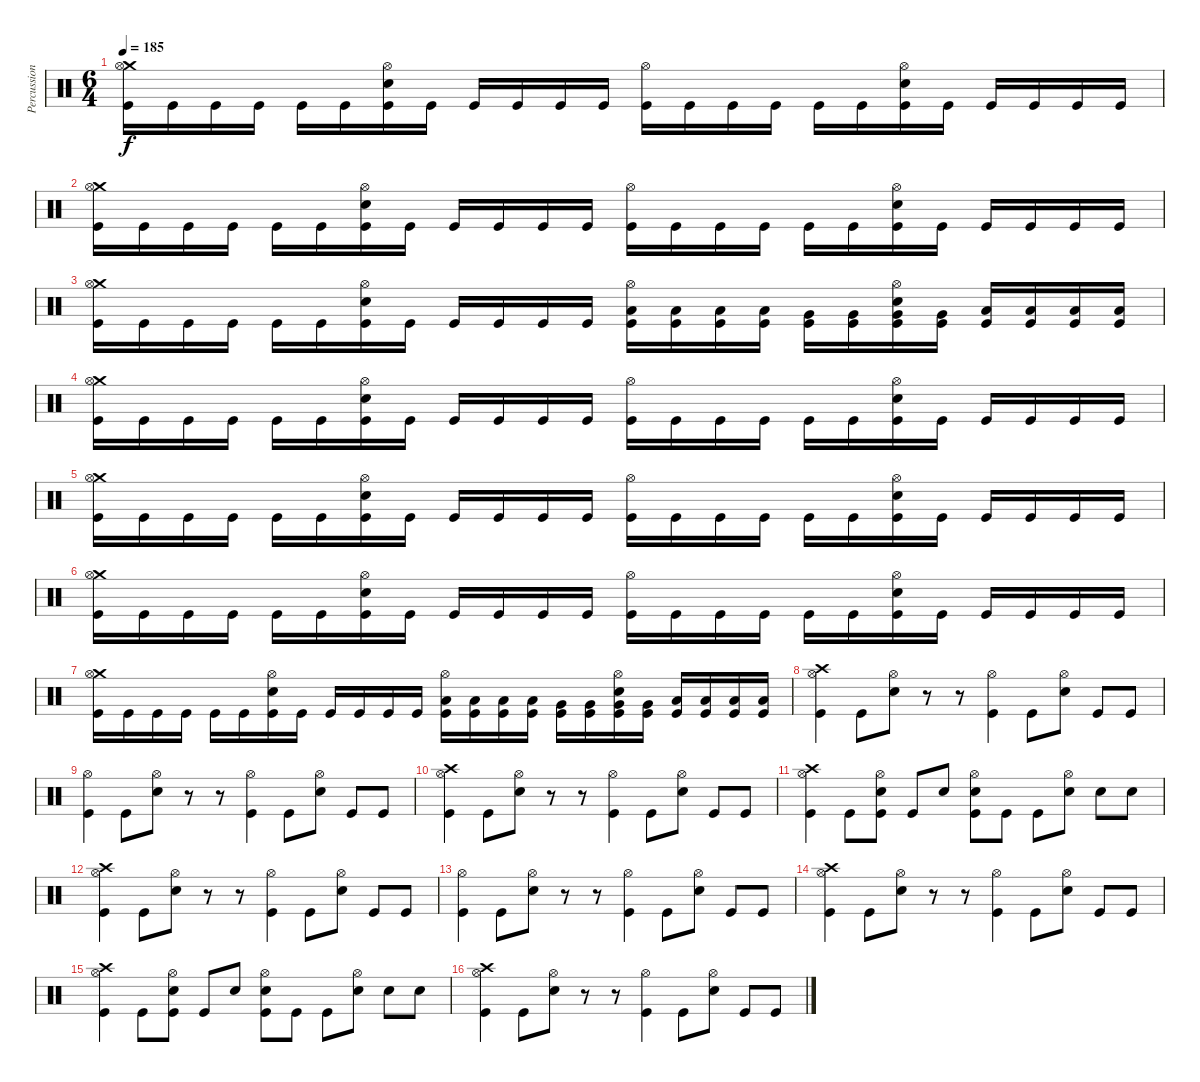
\track ("Percussion" "Percussion") {instrument percussion}
\staff {score}
\articulation defaults
\ts (6 4)
\tempo 185
\clef neutral
\ks c
("Crash medium (hit)" "Hi-Hat (open)" "Kick (hit)").16{dy f} "Kick (hit)".16 "Kick (hit)".16 "Kick (hit)".16 "Kick (hit)".16 "Kick (hit)".16 ("Hi-Hat (open)" "Electric Snare (hit)" "Kick (hit)").16 "Kick (hit)".16 "Kick (hit)".16 "Kick (hit)".16 "Kick (hit)".16 "Kick (hit)".16 ("Hi-Hat (open)" "Kick (hit)").16 "Kick (hit)".16 "Kick (hit)".16 "Kick (hit)".16 "Kick (hit)".16 "Kick (hit)".16 ("Electric Snare (hit)" "Hi-Hat (open)" "Kick (hit)").16 "Kick (hit)".16 "Kick (hit)".16 "Kick (hit)".16 "Kick (hit)".16 "Kick (hit)".16 |
("Crash medium (hit)" "Hi-Hat (open)" "Kick (hit)").16 "Kick (hit)".16 "Kick (hit)".16 "Kick (hit)".16 "Kick (hit)".16 "Kick (hit)".16 ("Hi-Hat (open)" "Electric Snare (hit)" "Kick (hit)").16 "Kick (hit)".16 "Kick (hit)".16 "Kick (hit)".16 "Kick (hit)".16 "Kick (hit)".16 ("Hi-Hat (open)" "Kick (hit)").16 "Kick (hit)".16 "Kick (hit)".16 "Kick (hit)".16 "Kick (hit)".16 "Kick (hit)".16 ("Electric Snare (hit)" "Hi-Hat (open)" "Kick (hit)").16 "Kick (hit)".16 "Kick (hit)".16 "Kick (hit)".16 "Kick (hit)".16 "Kick (hit)".16 |
("Crash medium (hit)" "Hi-Hat (open)" "Kick (hit)").16 "Kick (hit)".16 "Kick (hit)".16 "Kick (hit)".16 "Kick (hit)".16 "Kick (hit)".16 ("Hi-Hat (open)" "Electric Snare (hit)" "Kick (hit)").16 "Kick (hit)".16 "Kick (hit)".16 "Kick (hit)".16 "Kick (hit)".16 "Kick (hit)".16 ("Low Tom (hit)" "Hi-Hat (open)" "Kick (hit)").16 ("Low Tom (hit)" "Kick (hit)").16 ("Low Tom (hit)" "Kick (hit)").16 ("Low Tom (hit)" "Kick (hit)").16 ("Very Low Tom (hit)" "Kick (hit)").16 ("Very Low Tom (hit)" "Kick (hit)").16 ("Very Low Tom (hit)" "Electric Snare (hit)" "Hi-Hat (open)" "Kick (hit)").16 ("Very Low Tom (hit)" "Kick (hit)").16 ("Low Floor Tom (hit)" "Kick (hit)").16 ("Low Floor Tom (hit)" "Kick (hit)").16 ("Low Floor Tom (hit)" "Kick (hit)").16 ("Low Floor Tom (hit)" "Kick (hit)").16 |
("Crash medium (hit)" "Hi-Hat (open)" "Kick (hit)").16 "Kick (hit)".16 "Kick (hit)".16 "Kick (hit)".16 "Kick (hit)".16 "Kick (hit)".16 ("Hi-Hat (open)" "Electric Snare (hit)" "Kick (hit)").16 "Kick (hit)".16 "Kick (hit)".16 "Kick (hit)".16 "Kick (hit)".16 "Kick (hit)".16 ("Hi-Hat (open)" "Kick (hit)").16 "Kick (hit)".16 "Kick (hit)".16 "Kick (hit)".16 "Kick (hit)".16 "Kick (hit)".16 ("Electric Snare (hit)" "Hi-Hat (open)" "Kick (hit)").16 "Kick (hit)".16 "Kick (hit)".16 "Kick (hit)".16 "Kick (hit)".16 "Kick (hit)".16 |
("Crash medium (hit)" "Hi-Hat (open)" "Kick (hit)").16 "Kick (hit)".16 "Kick (hit)".16 "Kick (hit)".16 "Kick (hit)".16 "Kick (hit)".16 ("Hi-Hat (open)" "Electric Snare (hit)" "Kick (hit)").16 "Kick (hit)".16 "Kick (hit)".16 "Kick (hit)".16 "Kick (hit)".16 "Kick (hit)".16 ("Hi-Hat (open)" "Kick (hit)").16 "Kick (hit)".16 "Kick (hit)".16 "Kick (hit)".16 "Kick (hit)".16 "Kick (hit)".16 ("Electric Snare (hit)" "Hi-Hat (open)" "Kick (hit)").16 "Kick (hit)".16 "Kick (hit)".16 "Kick (hit)".16 "Kick (hit)".16 "Kick (hit)".16 |
("Crash medium (hit)" "Hi-Hat (open)" "Kick (hit)").16 "Kick (hit)".16 "Kick (hit)".16 "Kick (hit)".16 "Kick (hit)".16 "Kick (hit)".16 ("Hi-Hat (open)" "Electric Snare (hit)" "Kick (hit)").16 "Kick (hit)".16 "Kick (hit)".16 "Kick (hit)".16 "Kick (hit)".16 "Kick (hit)".16 ("Hi-Hat (open)" "Kick (hit)").16 "Kick (hit)".16 "Kick (hit)".16 "Kick (hit)".16 "Kick (hit)".16 "Kick (hit)".16 ("Electric Snare (hit)" "Hi-Hat (open)" "Kick (hit)").16 "Kick (hit)".16 "Kick (hit)".16 "Kick (hit)".16 "Kick (hit)".16 "Kick (hit)".16 |
("Crash medium (hit)" "Hi-Hat (open)" "Kick (hit)").16 "Kick (hit)".16 "Kick (hit)".16 "Kick (hit)".16 "Kick (hit)".16 "Kick (hit)".16 ("Hi-Hat (open)" "Electric Snare (hit)" "Kick (hit)").16 "Kick (hit)".16 "Kick (hit)".16 "Kick (hit)".16 "Kick (hit)".16 "Kick (hit)".16 ("Low Tom (hit)" "Hi-Hat (open)" "Kick (hit)").16 ("Low Tom (hit)" "Kick (hit)").16 ("Low Tom (hit)" "Kick (hit)").16 ("Low Tom (hit)" "Kick (hit)").16 ("Very Low Tom (hit)" "Kick (hit)").16 ("Very Low Tom (hit)" "Kick (hit)").16 ("Very Low Tom (hit)" "Electric Snare (hit)" "Hi-Hat (open)" "Kick (hit)").16 ("Very Low Tom (hit)" "Kick (hit)").16 ("Low Floor Tom (hit)" "Kick (hit)").16 ("Low Floor Tom (hit)" "Kick (hit)").16 ("Low Floor Tom (hit)" "Kick (hit)").16 ("Low Floor Tom (hit)" "Kick (hit)").16 |
("Crash high (hit)" "Hi-Hat (open)" "Kick (hit)").4 "Kick (hit)".8 ("Hi-Hat (open)" "Electric Snare (hit)").8 r.8 r.8 ("Hi-Hat (open)" "Kick (hit)").4 "Kick (hit)".8 ("Hi-Hat (open)" "Electric Snare (hit)").8 "Kick (hit)".8 "Kick (hit)".8 |
("Hi-Hat (open)" "Kick (hit)").4 "Kick (hit)".8 ("Hi-Hat (open)" "Electric Snare (hit)").8 r.8 r.8 ("Hi-Hat (open)" "Kick (hit)").4 "Kick (hit)".8 ("Hi-Hat (open)" "Electric Snare (hit)").8 "Kick (hit)".8 "Kick (hit)".8 |
("Crash high (hit)" "Hi-Hat (open)" "Kick (hit)").4 "Kick (hit)".8 ("Hi-Hat (open)" "Electric Snare (hit)").8 r.8 r.8 ("Hi-Hat (open)" "Kick (hit)").4 "Kick (hit)".8 ("Hi-Hat (open)" "Electric Snare (hit)").8 "Kick (hit)".8 "Kick (hit)".8 |
("Crash high (hit)" "Hi-Hat (open)" "Kick (hit)").4 "Kick (hit)".8 ("Hi-Hat (open)" "Electric Snare (hit)" "Kick (hit)").8 "Kick (hit)".8 "Electric Snare (hit)".8 ("Hi-Hat (open)" "Electric Snare (hit)" "Kick (hit)").8 "Kick (hit)".8 "Kick (hit)".8 ("Hi-Hat (open)" "Electric Snare (hit)").8 "Electric Snare (hit)".8 "Electric Snare (hit)".8 |
("Crash high (hit)" "Hi-Hat (open)" "Kick (hit)").4 "Kick (hit)".8 ("Hi-Hat (open)" "Electric Snare (hit)").8 r.8 r.8 ("Hi-Hat (open)" "Kick (hit)").4 "Kick (hit)".8 ("Hi-Hat (open)" "Electric Snare (hit)").8 "Kick (hit)".8 "Kick (hit)".8 |
("Hi-Hat (open)" "Kick (hit)").4 "Kick (hit)".8 ("Hi-Hat (open)" "Electric Snare (hit)").8 r.8 r.8 ("Hi-Hat (open)" "Kick (hit)").4 "Kick (hit)".8 ("Hi-Hat (open)" "Electric Snare (hit)").8 "Kick (hit)".8 "Kick (hit)".8 |
("Crash high (hit)" "Hi-Hat (open)" "Kick (hit)").4 "Kick (hit)".8 ("Hi-Hat (open)" "Electric Snare (hit)").8 r.8 r.8 ("Hi-Hat (open)" "Kick (hit)").4 "Kick (hit)".8 ("Hi-Hat (open)" "Electric Snare (hit)").8 "Kick (hit)".8 "Kick (hit)".8 |
("Crash high (hit)" "Hi-Hat (open)" "Kick (hit)").4 "Kick (hit)".8 ("Hi-Hat (open)" "Electric Snare (hit)" "Kick (hit)").8 "Kick (hit)".8 "Electric Snare (hit)".8 ("Hi-Hat (open)" "Electric Snare (hit)" "Kick (hit)").8 "Kick (hit)".8 "Kick (hit)".8 ("Hi-Hat (open)" "Electric Snare (hit)").8 "Electric Snare (hit)".8 "Electric Snare (hit)".8 |
("Crash high (hit)" "Hi-Hat (open)" "Kick (hit)").4 "Kick (hit)".8 ("Hi-Hat (open)" "Electric Snare (hit)").8 r.8 r.8 ("Hi-Hat (open)" "Kick (hit)").4 "Kick (hit)".8 ("Hi-Hat (open)" "Electric Snare (hit)").8 "Kick (hit)".8 "Kick (hit)".8
